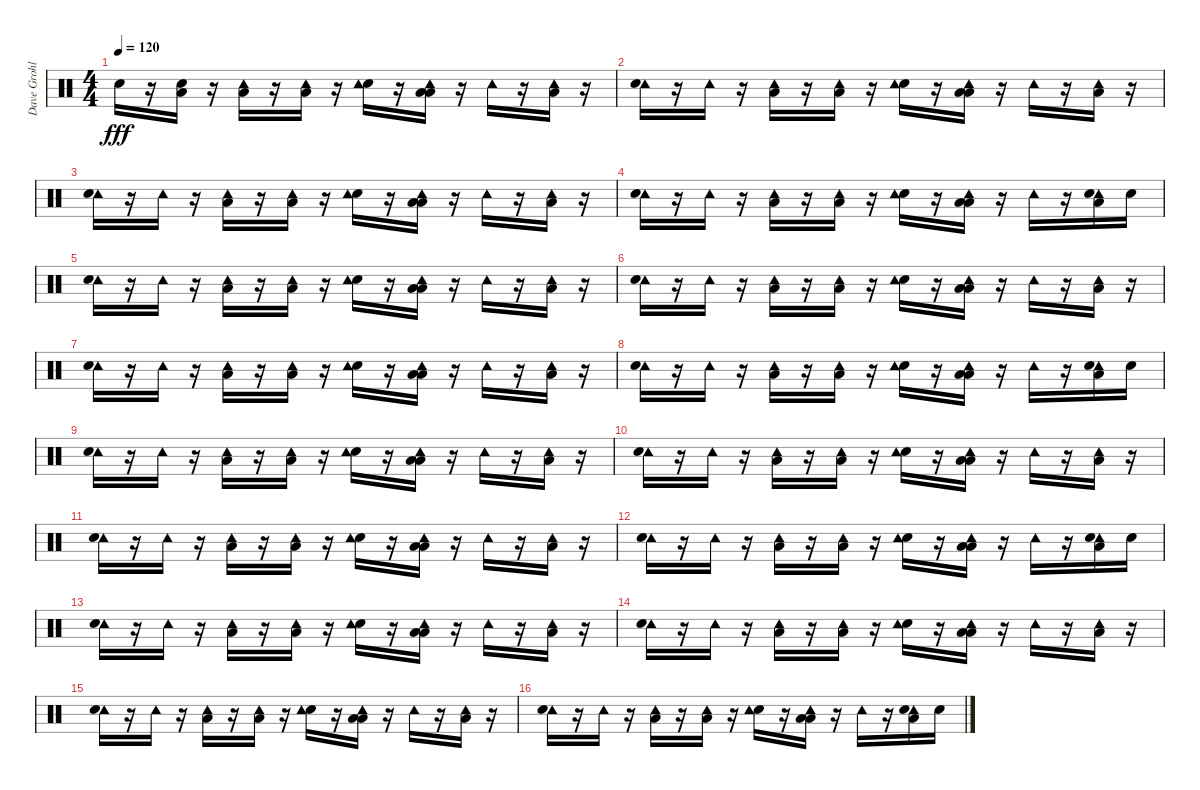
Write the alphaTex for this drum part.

\track ("Dave Grohl " "Dave Grohl") {instrument percussion}
\staff {score}
\articulation defaults
\ts (4 4)
\tempo 120
\clef neutral
\ks c "Snare (hit) 2".16{dy fff}
r.16 ("Low Tom (hit)" "Snare (hit) 2").16 r.16 ("Low Floor Tom (hit)" "Tambourine (hit)").16 r.16 ("Low Floor Tom (hit)" "Tambourine (hit)").16 r.16 ("Snare (hit) 2" "Tambourine (hit)").16 r.16 ("Tambourine (hit)" "Low Floor Tom (hit)" "Low Tom (hit)").16 r.16 "Tambourine (hit)".16 r.16 ("Tambourine (hit)" "Low Floor Tom (hit)").16 r.16 |
("Tambourine (hit)" "Snare (hit) 2").16 r.16 "Tambourine (hit)".16 r.16 ("Low Floor Tom (hit)" "Tambourine (hit)").16 r.16 ("Low Floor Tom (hit)" "Tambourine (hit)").16 r.16 ("Snare (hit) 2" "Tambourine (hit)").16 r.16 ("Tambourine (hit)" "Low Floor Tom (hit)" "Low Tom (hit)").16 r.16 "Tambourine (hit)".16 r.16 ("Tambourine (hit)" "Low Floor Tom (hit)").16 r.16 |
("Tambourine (hit)" "Snare (hit) 2").16 r.16 "Tambourine (hit)".16 r.16 ("Low Floor Tom (hit)" "Tambourine (hit)").16 r.16 ("Low Floor Tom (hit)" "Tambourine (hit)").16 r.16 ("Snare (hit) 2" "Tambourine (hit)").16 r.16 ("Tambourine (hit)" "Low Floor Tom (hit)" "Low Tom (hit)").16 r.16 "Tambourine (hit)".16 r.16 ("Tambourine (hit)" "Low Floor Tom (hit)").16 r.16 |
("Tambourine (hit)" "Snare (hit) 2").16 r.16 "Tambourine (hit)".16 r.16 ("Low Floor Tom (hit)" "Tambourine (hit)").16 r.16 ("Low Floor Tom (hit)" "Tambourine (hit)").16 r.16 ("Snare (hit) 2" "Tambourine (hit)").16 r.16 ("Tambourine (hit)" "Low Floor Tom (hit)" "Low Tom (hit)").16 r.16 "Tambourine (hit)".16 r.16 ("Tambourine (hit)" "Low Floor Tom (hit)" "Snare (hit) 2").16 "Snare (hit) 2".16 |
("Tambourine (hit)" "Snare (hit) 2").16 r.16 "Tambourine (hit)".16 r.16 ("Low Floor Tom (hit)" "Tambourine (hit)").16 r.16 ("Low Floor Tom (hit)" "Tambourine (hit)").16 r.16 ("Snare (hit) 2" "Tambourine (hit)").16 r.16 ("Tambourine (hit)" "Low Floor Tom (hit)" "Low Tom (hit)").16 r.16 "Tambourine (hit)".16 r.16 ("Tambourine (hit)" "Low Floor Tom (hit)").16 r.16 |
("Tambourine (hit)" "Snare (hit) 2").16 r.16 "Tambourine (hit)".16 r.16 ("Low Floor Tom (hit)" "Tambourine (hit)").16 r.16 ("Low Floor Tom (hit)" "Tambourine (hit)").16 r.16 ("Snare (hit) 2" "Tambourine (hit)").16 r.16 ("Tambourine (hit)" "Low Floor Tom (hit)" "Low Tom (hit)").16 r.16 "Tambourine (hit)".16 r.16 ("Tambourine (hit)" "Low Floor Tom (hit)").16 r.16 |
("Tambourine (hit)" "Snare (hit) 2").16 r.16 "Tambourine (hit)".16 r.16 ("Low Floor Tom (hit)" "Tambourine (hit)").16 r.16 ("Low Floor Tom (hit)" "Tambourine (hit)").16 r.16 ("Snare (hit) 2" "Tambourine (hit)").16 r.16 ("Tambourine (hit)" "Low Floor Tom (hit)" "Low Tom (hit)").16 r.16 "Tambourine (hit)".16 r.16 ("Tambourine (hit)" "Low Floor Tom (hit)").16 r.16 |
("Tambourine (hit)" "Snare (hit) 2").16 r.16 "Tambourine (hit)".16 r.16 ("Low Floor Tom (hit)" "Tambourine (hit)").16 r.16 ("Low Floor Tom (hit)" "Tambourine (hit)").16 r.16 ("Snare (hit) 2" "Tambourine (hit)").16 r.16 ("Tambourine (hit)" "Low Floor Tom (hit)" "Low Tom (hit)").16 r.16 "Tambourine (hit)".16 r.16 ("Tambourine (hit)" "Low Floor Tom (hit)" "Snare (hit) 2").16 "Snare (hit) 2".16 |
("Tambourine (hit)" "Snare (hit) 2").16 r.16 "Tambourine (hit)".16 r.16 ("Low Floor Tom (hit)" "Tambourine (hit)").16 r.16 ("Low Floor Tom (hit)" "Tambourine (hit)").16 r.16 ("Snare (hit) 2" "Tambourine (hit)").16 r.16 ("Tambourine (hit)" "Low Floor Tom (hit)" "Low Tom (hit)").16 r.16 "Tambourine (hit)".16 r.16 ("Tambourine (hit)" "Low Floor Tom (hit)").16 r.16 |
("Tambourine (hit)" "Snare (hit) 2").16 r.16 "Tambourine (hit)".16 r.16 ("Low Floor Tom (hit)" "Tambourine (hit)").16 r.16 ("Low Floor Tom (hit)" "Tambourine (hit)").16 r.16 ("Snare (hit) 2" "Tambourine (hit)").16 r.16 ("Tambourine (hit)" "Low Floor Tom (hit)" "Low Tom (hit)").16 r.16 "Tambourine (hit)".16 r.16 ("Tambourine (hit)" "Low Floor Tom (hit)").16 r.16 |
("Tambourine (hit)" "Snare (hit) 2").16 r.16 "Tambourine (hit)".16 r.16 ("Low Floor Tom (hit)" "Tambourine (hit)").16 r.16 ("Low Floor Tom (hit)" "Tambourine (hit)").16 r.16 ("Snare (hit) 2" "Tambourine (hit)").16 r.16 ("Tambourine (hit)" "Low Floor Tom (hit)" "Low Tom (hit)").16 r.16 "Tambourine (hit)".16 r.16 ("Tambourine (hit)" "Low Floor Tom (hit)").16 r.16 |
("Tambourine (hit)" "Snare (hit) 2").16 r.16 "Tambourine (hit)".16 r.16 ("Low Floor Tom (hit)" "Tambourine (hit)").16 r.16 ("Low Floor Tom (hit)" "Tambourine (hit)").16 r.16 ("Snare (hit) 2" "Tambourine (hit)").16 r.16 ("Tambourine (hit)" "Low Floor Tom (hit)" "Low Tom (hit)").16 r.16 "Tambourine (hit)".16 r.16 ("Tambourine (hit)" "Low Floor Tom (hit)" "Snare (hit) 2").16 "Snare (hit) 2".16 |
("Tambourine (hit)" "Snare (hit) 2").16 r.16 "Tambourine (hit)".16 r.16 ("Low Floor Tom (hit)" "Tambourine (hit)").16 r.16 ("Low Floor Tom (hit)" "Tambourine (hit)").16 r.16 ("Snare (hit) 2" "Tambourine (hit)").16 r.16 ("Tambourine (hit)" "Low Floor Tom (hit)" "Low Tom (hit)").16 r.16 "Tambourine (hit)".16 r.16 ("Tambourine (hit)" "Low Floor Tom (hit)").16 r.16 |
("Tambourine (hit)" "Snare (hit) 2").16 r.16 "Tambourine (hit)".16 r.16 ("Low Floor Tom (hit)" "Tambourine (hit)").16 r.16 ("Low Floor Tom (hit)" "Tambourine (hit)").16 r.16 ("Snare (hit) 2" "Tambourine (hit)").16 r.16 ("Tambourine (hit)" "Low Floor Tom (hit)" "Low Tom (hit)").16 r.16 "Tambourine (hit)".16 r.16 ("Tambourine (hit)" "Low Floor Tom (hit)").16 r.16 |
("Tambourine (hit)" "Snare (hit) 2").16 r.16 "Tambourine (hit)".16 r.16 ("Low Floor Tom (hit)" "Tambourine (hit)").16 r.16 ("Low Floor Tom (hit)" "Tambourine (hit)").16 r.16 ("Snare (hit) 2" "Tambourine (hit)").16 r.16 ("Tambourine (hit)" "Low Floor Tom (hit)" "Low Tom (hit)").16 r.16 "Tambourine (hit)".16 r.16 ("Tambourine (hit)" "Low Floor Tom (hit)").16 r.16 |
("Tambourine (hit)" "Snare (hit) 2").16 r.16 "Tambourine (hit)".16 r.16 ("Low Floor Tom (hit)" "Tambourine (hit)").16 r.16 ("Low Floor Tom (hit)" "Tambourine (hit)").16 r.16 ("Snare (hit) 2" "Tambourine (hit)").16 r.16 ("Tambourine (hit)" "Low Floor Tom (hit)" "Low Tom (hit)").16 r.16 "Tambourine (hit)".16 r.16 ("Tambourine (hit)" "Low Floor Tom (hit)" "Snare (hit) 2").16 "Snare (hit) 2".16
